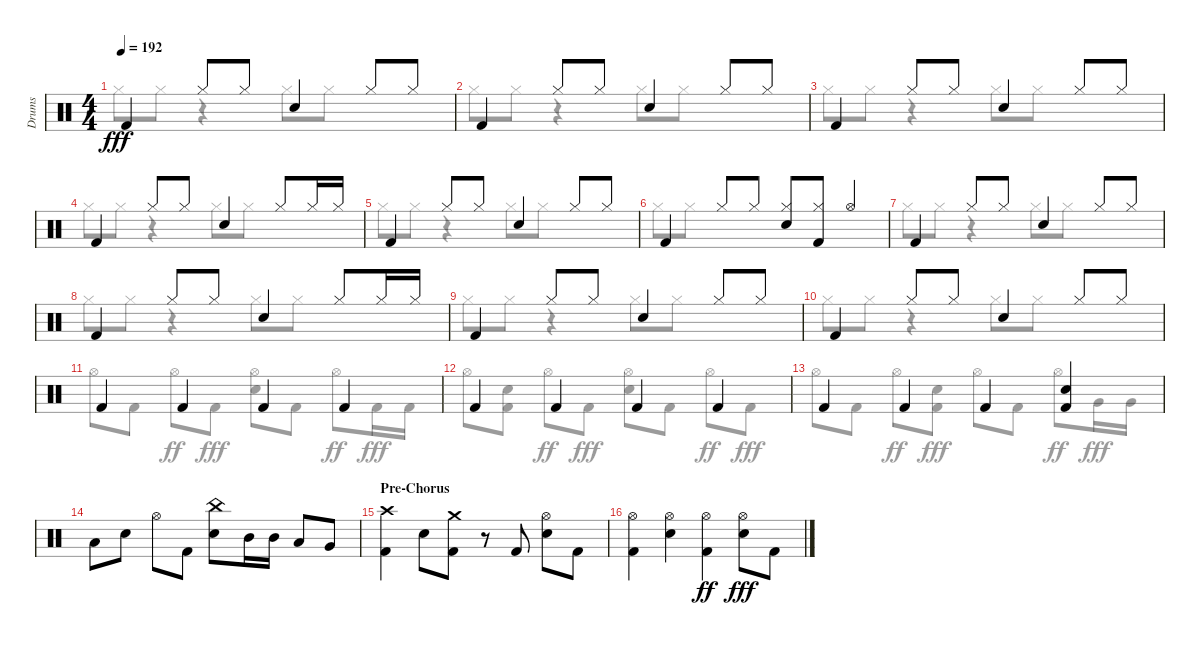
\track ("Drums" "Drums") {instrument percussion}
\staff {score}
\articulation defaults
\voice
\ts (4 4)
\tempo 192
\clef neutral
\ks aminor "Kick (hit) 2".4{dy fff} "Hi-Hat (closed)".8 "Hi-Hat (closed)".8 "Snare (hit) 2".4 "Hi-Hat (closed)".8 "Hi-Hat (closed)".8
|
"Kick (hit) 2".4 "Hi-Hat (closed)".8 "Hi-Hat (closed)".8 "Snare (hit) 2".4 "Hi-Hat (closed)".8 "Hi-Hat (closed)".8 |
"Kick (hit) 2".4 "Hi-Hat (closed)".8 "Hi-Hat (closed)".8 "Snare (hit) 2".4 "Hi-Hat (closed)".8 "Hi-Hat (closed)".8 |
"Kick (hit) 2".4 "Hi-Hat (closed)".8 "Hi-Hat (closed)".8 "Snare (hit) 2".4 "Hi-Hat (closed)".8 "Hi-Hat (closed)".16 "Hi-Hat (closed)".16 |
"Kick (hit) 2".4 "Hi-Hat (closed)".8 "Hi-Hat (closed)".8 "Snare (hit) 2".4 "Hi-Hat (closed)".8 "Hi-Hat (closed)".8 |
"Kick (hit) 2".4 "Hi-Hat (closed)".8 "Hi-Hat (closed)".8 ("Snare (hit) 2" "Hi-Hat (closed)").8 ("Hi-Hat (closed)" "Kick (hit) 2").8 "Hi-Hat (open)".4 |
"Kick (hit) 2".4 "Hi-Hat (closed)".8 "Hi-Hat (closed)".8 "Snare (hit) 2".4 "Hi-Hat (closed)".8 "Hi-Hat (closed)".8 |
"Kick (hit) 2".4 "Hi-Hat (closed)".8 "Hi-Hat (closed)".8 "Snare (hit) 2".4 "Hi-Hat (closed)".8 "Hi-Hat (closed)".16 "Hi-Hat (closed)".16 |
"Kick (hit) 2".4 "Hi-Hat (closed)".8 "Hi-Hat (closed)".8 "Snare (hit) 2".4 "Hi-Hat (closed)".8 "Hi-Hat (closed)".8 |
"Kick (hit) 2".4 "Hi-Hat (closed)".8 "Hi-Hat (closed)".8 "Snare (hit) 2".4 "Hi-Hat (closed)".8 "Hi-Hat (closed)".8 |
"Kick (hit) 2".4 "Kick (hit) 2".4 "Kick (hit) 2".4 "Kick (hit) 2".4 |
"Kick (hit) 2".4 "Kick (hit) 2".4 "Kick (hit) 2".4 "Kick (hit) 2".4 |
"Kick (hit) 2".4 "Kick (hit) 2".4 "Kick (hit) 2".4 ("Kick (hit) 2" "Snare (hit) 2").4 |
"Low Floor Tom (hit)".8 "Snare (hit) 2".8 "Hi-Hat (open)".8 "Kick (hit) 2".8 ("Snare (hit) 2" "China (hit)").8 "Mid Tom (hit)".16 "Mid Tom (hit)".16 "Low Tom (hit)".8 "Very Low Tom (hit)".8 |
\section ("" "Pre-Chorus")
("Crash high (hit)" "Kick (hit) 2").4 "Snare (hit) 2".8 ("Crash medium (hit)" "Kick (hit) 2").8 r.8 "Kick (hit) 2".8 ("Snare (hit) 2" "Hi-Hat (open)").8 "Kick (hit) 2".8 |
("Hi-Hat (open)" "Kick (hit) 2").4 ("Hi-Hat (open)" "Snare (hit) 2").4 ("Hi-Hat (open)" "Kick (hit) 2").4{dy ff} ("Hi-Hat (open)" "Snare (hit) 2").8{dy fff} "Kick (hit) 2".8
\voice
\clef neutral
\ottava regular
\simile none
\ks aminor "Hi-Hat (closed)".8{dy fff} "Hi-Hat (closed)".8
r.4 "Hi-Hat (closed)".8 "Hi-Hat (closed)".8 |
"Hi-Hat (closed)".8 "Hi-Hat (closed)".8 r.4 "Hi-Hat (closed)".8 "Hi-Hat (closed)".8 |
"Hi-Hat (closed)".8 "Hi-Hat (closed)".8 r.4 "Hi-Hat (closed)".8 "Hi-Hat (closed)".8 |
"Hi-Hat (closed)".8 "Hi-Hat (closed)".8 r.4 "Hi-Hat (closed)".8 "Hi-Hat (closed)".8 |
"Hi-Hat (closed)".8 "Hi-Hat (closed)".8 r.4 "Hi-Hat (closed)".8 "Hi-Hat (closed)".8 |
"Hi-Hat (closed)".8 "Hi-Hat (closed)".8 |
"Hi-Hat (closed)".8 "Hi-Hat (closed)".8 r.4 "Hi-Hat (closed)".8 "Hi-Hat (closed)".8 |
"Hi-Hat (closed)".8 "Hi-Hat (closed)".8 r.4 "Hi-Hat (closed)".8 "Hi-Hat (closed)".8 |
"Hi-Hat (closed)".8 "Hi-Hat (closed)".8 r.4 "Hi-Hat (closed)".8 "Hi-Hat (closed)".8 |
"Hi-Hat (closed)".8 "Hi-Hat (closed)".8 r.4 "Hi-Hat (closed)".8 "Hi-Hat (closed)".8 |
"Hi-Hat (open)".8 "Kick (hit) 2".8 "Hi-Hat (open)".8{dy ff} "Kick (hit) 2".8{dy fff} ("Snare (hit) 2" "Hi-Hat (open)").8 "Kick (hit) 2".8 "Hi-Hat (open)".8{dy ff} "Kick (hit) 2".16{dy fff} "Kick (hit) 2".16 |
"Hi-Hat (open)".8 ("Snare (hit) 2" "Kick (hit) 2").8 "Hi-Hat (open)".8{dy ff} "Kick (hit) 2".8{dy fff} ("Snare (hit) 2" "Hi-Hat (open)").8 "Kick (hit) 2".8 "Hi-Hat (open)".8{dy ff} "Kick (hit) 2".8{dy fff} |
"Hi-Hat (open)".8 "Kick (hit) 2".8 "Hi-Hat (open)".8{dy ff} ("Snare (hit) 2" "Kick (hit) 2").8{dy fff} "Hi-Hat (open)".8 "Kick (hit) 2".8 "Hi-Hat (open)".8{dy ff} "Very Low Tom (hit)".16{dy fff} "Very Low Tom (hit)".16 |
|
|
